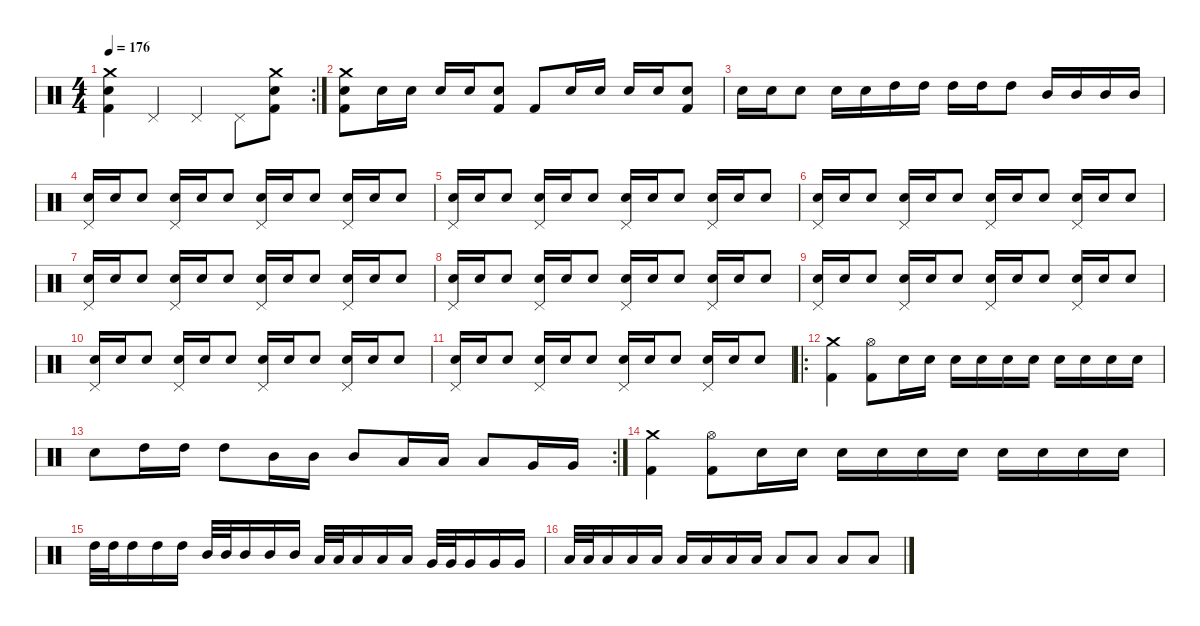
\defaultSystemsLayout 4
\hideDynamics
\bracketExtendMode nobrackets
\singleTrackTrackNamePolicy hidden
\multiTrackTrackNamePolicy hidden
\firstSystemTrackNameMode fullname
\firstSystemTrackNameOrientation horizontal
\otherSystemsTrackNameOrientation horizontal
\track ("Bill Ward" "drm.") {instrument percussion}
\staff {score}
\articulation defaults
\rc 2
\ts (4 4)
\tempo 176
\clef neutral
\ks c
("Crash medium (hit)" "Snare (hit) 2" "Kick (hit) 2").4{dy f beam Down} "Pedal Hi-Hat (hit)".4{beam Up} "Pedal Hi-Hat (hit)".4{beam Up} "Pedal Hi-Hat (hit)".8{beam Down} ("Crash medium (hit)" "Snare (hit) 2" "Kick (hit) 2").8{beam Down} |
("Crash medium (hit)" "Snare (hit) 2" "Kick (hit) 2").8{beam Down} "Snare (hit) 2".16{beam Down} "Snare (hit) 2".16{beam Down} "Snare (hit) 2".16{beam Up} "Snare (hit) 2".16{beam Up} ("Snare (hit) 2" "Kick (hit) 2").8{beam Up} "Kick (hit) 2".8{beam Up} "Snare (hit) 2".16{beam Up} "Snare (hit) 2".16{beam Up} "Snare (hit) 2".16{beam Up} "Snare (hit) 2".16{beam Up} ("Snare (hit) 2" "Kick (hit) 2").8{beam Up} |
"Snare (hit) 2".16{beam Down} "Snare (hit) 2".16{beam Down} "Snare (hit) 2".8{beam Down} "Snare (hit) 2".16{beam Down} "Snare (hit) 2".16{beam Down} "High Tom (hit)".16{beam Down} "High Tom (hit)".16{beam Down} "High Tom (hit)".16{beam Down} "High Tom (hit)".16{beam Down} "High Tom (hit)".8{beam Down} "Mid Tom (hit)".16{beam Up} "Mid Tom (hit)".16{beam Up} "Mid Tom (hit)".16{beam Up} "Mid Tom (hit)".16{beam Up} |
("Pedal Hi-Hat (hit)" "Snare (hit) 2").16{beam Up} "Snare (hit) 2".16{beam Up} "Snare (hit) 2".8{beam Up} ("Pedal Hi-Hat (hit)" "Snare (hit) 2").16{beam Up} "Snare (hit) 2".16{beam Up} "Snare (hit) 2".8{beam Up} ("Pedal Hi-Hat (hit)" "Snare (hit) 2").16{beam Up} "Snare (hit) 2".16{beam Up} "Snare (hit) 2".8{beam Up} ("Pedal Hi-Hat (hit)" "Snare (hit) 2").16{beam Up} "Snare (hit) 2".16{beam Up} "Snare (hit) 2".8{beam Up} |
("Pedal Hi-Hat (hit)" "Snare (hit) 2").16{beam Up} "Snare (hit) 2".16{beam Up} "Snare (hit) 2".8{beam Up} ("Pedal Hi-Hat (hit)" "Snare (hit) 2").16{beam Up} "Snare (hit) 2".16{beam Up} "Snare (hit) 2".8{beam Up} ("Pedal Hi-Hat (hit)" "Snare (hit) 2").16{beam Up} "Snare (hit) 2".16{beam Up} "Snare (hit) 2".8{beam Up} ("Pedal Hi-Hat (hit)" "Snare (hit) 2").16{beam Up} "Snare (hit) 2".16{beam Up} "Snare (hit) 2".8{beam Up} |
("Pedal Hi-Hat (hit)" "Snare (hit) 2").16{beam Up} "Snare (hit) 2".16{beam Up} "Snare (hit) 2".8{beam Up} ("Pedal Hi-Hat (hit)" "Snare (hit) 2").16{beam Up} "Snare (hit) 2".16{beam Up} "Snare (hit) 2".8{beam Up} ("Pedal Hi-Hat (hit)" "Snare (hit) 2").16{beam Up} "Snare (hit) 2".16{beam Up} "Snare (hit) 2".8{beam Up} ("Pedal Hi-Hat (hit)" "Snare (hit) 2").16{beam Up} "Snare (hit) 2".16{beam Up} "Snare (hit) 2".8{beam Up} |
("Pedal Hi-Hat (hit)" "Snare (hit) 2").16{beam Up} "Snare (hit) 2".16{beam Up} "Snare (hit) 2".8{beam Up} ("Pedal Hi-Hat (hit)" "Snare (hit) 2").16{beam Up} "Snare (hit) 2".16{beam Up} "Snare (hit) 2".8{beam Up} ("Pedal Hi-Hat (hit)" "Snare (hit) 2").16{beam Up} "Snare (hit) 2".16{beam Up} "Snare (hit) 2".8{beam Up} ("Pedal Hi-Hat (hit)" "Snare (hit) 2").16{beam Up} "Snare (hit) 2".16{beam Up} "Snare (hit) 2".8{beam Up} |
("Pedal Hi-Hat (hit)" "Snare (hit) 2").16{beam Up} "Snare (hit) 2".16{beam Up} "Snare (hit) 2".8{beam Up} ("Pedal Hi-Hat (hit)" "Snare (hit) 2").16{beam Up} "Snare (hit) 2".16{beam Up} "Snare (hit) 2".8{beam Up} ("Pedal Hi-Hat (hit)" "Snare (hit) 2").16{beam Up} "Snare (hit) 2".16{beam Up} "Snare (hit) 2".8{beam Up} ("Pedal Hi-Hat (hit)" "Snare (hit) 2").16{beam Up} "Snare (hit) 2".16{beam Up} "Snare (hit) 2".8{beam Up} |
("Pedal Hi-Hat (hit)" "Snare (hit) 2").16{beam Up} "Snare (hit) 2".16{beam Up} "Snare (hit) 2".8{beam Up} ("Pedal Hi-Hat (hit)" "Snare (hit) 2").16{beam Up} "Snare (hit) 2".16{beam Up} "Snare (hit) 2".8{beam Up} ("Pedal Hi-Hat (hit)" "Snare (hit) 2").16{beam Up} "Snare (hit) 2".16{beam Up} "Snare (hit) 2".8{beam Up} ("Pedal Hi-Hat (hit)" "Snare (hit) 2").16{beam Up} "Snare (hit) 2".16{beam Up} "Snare (hit) 2".8{beam Up} |
("Pedal Hi-Hat (hit)" "Snare (hit) 2").16{beam Up} "Snare (hit) 2".16{beam Up} "Snare (hit) 2".8{beam Up} ("Pedal Hi-Hat (hit)" "Snare (hit) 2").16{beam Up} "Snare (hit) 2".16{beam Up} "Snare (hit) 2".8{beam Up} ("Pedal Hi-Hat (hit)" "Snare (hit) 2").16{beam Up} "Snare (hit) 2".16{beam Up} "Snare (hit) 2".8{beam Up} ("Pedal Hi-Hat (hit)" "Snare (hit) 2").16{beam Up} "Snare (hit) 2".16{beam Up} "Snare (hit) 2".8{beam Up} |
("Pedal Hi-Hat (hit)" "Snare (hit) 2").16{beam Up} "Snare (hit) 2".16{beam Up} "Snare (hit) 2".8{beam Up} ("Pedal Hi-Hat (hit)" "Snare (hit) 2").16{beam Up} "Snare (hit) 2".16{beam Up} "Snare (hit) 2".8{beam Up} ("Pedal Hi-Hat (hit)" "Snare (hit) 2").16{beam Up} "Snare (hit) 2".16{beam Up} "Snare (hit) 2".8{beam Up} ("Pedal Hi-Hat (hit)" "Snare (hit) 2").16{beam Up} "Snare (hit) 2".16{beam Up} "Snare (hit) 2".8{beam Up} |
\ro
("Crash medium (hit)" "Kick (hit) 2").4{beam Down} ("Hi-Hat (open)" "Kick (hit) 2").8{beam Down} "Snare (hit) 2".16{beam Down} "Snare (hit) 2".16{beam Down} "Snare (hit) 2".16{beam Down} "Snare (hit) 2".16{beam Down} "Snare (hit) 2".16{beam Down} "Snare (hit) 2".16{beam Down} "Snare (hit) 2".16{beam Down} "Snare (hit) 2".16{beam Down} "Snare (hit) 2".16{beam Down} "Snare (hit) 2".16{beam Down} |
\rc 2 "Snare (hit) 2".8{beam Down} "High Tom (hit)".16{beam Down} "High Tom (hit)".16{beam Down} "High Tom (hit)".8{beam Down} "Mid Tom (hit)".16{beam Down} "Mid Tom (hit)".16{beam Down} "Mid Tom (hit)".8{beam Up} "Low Tom (hit)".16{beam Up} "Low Tom (hit)".16{beam Up} "Low Tom (hit)".8{beam Up} "Very Low Tom (hit)".16{beam Up} "Very Low Tom (hit)".16{beam Up}
|
("Crash medium (hit)" "Kick (hit) 2").4{beam Down} ("Hi-Hat (open)" "Kick (hit) 2").8{beam Down} "Snare (hit) 2".16{beam Down} "Snare (hit) 2".16{beam Down} "Snare (hit) 2".16{beam Down} "Snare (hit) 2".16{beam Down} "Snare (hit) 2".16{beam Down} "Snare (hit) 2".16{beam Down} "Snare (hit) 2".16{beam Down} "Snare (hit) 2".16{beam Down} "Snare (hit) 2".16{beam Down} "Snare (hit) 2".16{beam Down} |
"High Tom (hit)".32{beam Down} "High Tom (hit)".32{beam Down} "High Tom (hit)".16{beam Down} "High Tom (hit)".16{beam Down} "High Tom (hit)".16{beam Down} "Mid Tom (hit)".32{beam Up} "Mid Tom (hit)".32{beam Up} "Mid Tom (hit)".16{beam Up} "Mid Tom (hit)".16{beam Up} "Mid Tom (hit)".16{beam Up} "Low Tom (hit)".32{beam Up} "Low Tom (hit)".32{beam Up} "Low Tom (hit)".16{beam Up} "Low Tom (hit)".16{beam Up} "Low Tom (hit)".16{beam Up} "Very Low Tom (hit)".32{beam Up} "Very Low Tom (hit)".32{beam Up} "Very Low Tom (hit)".16{beam Up} "Very Low Tom (hit)".16{beam Up} "Very Low Tom (hit)".16{beam Up} |
"Low Floor Tom (hit)".32{beam Up} "Low Floor Tom (hit)".32{beam Up} "Low Floor Tom (hit)".16{beam Up} "Low Floor Tom (hit)".16{beam Up} "Low Floor Tom (hit)".16{beam Up} "Low Floor Tom (hit)".16{beam Up} "Low Floor Tom (hit)".16{beam Up} "Low Floor Tom (hit)".16{beam Up} "Low Floor Tom (hit)".16{beam Up} "Low Floor Tom (hit)".8{beam Up} "Low Floor Tom (hit)".8{beam Up} "Low Floor Tom (hit)".8{beam Up} "Low Floor Tom (hit)".8{beam Up}
